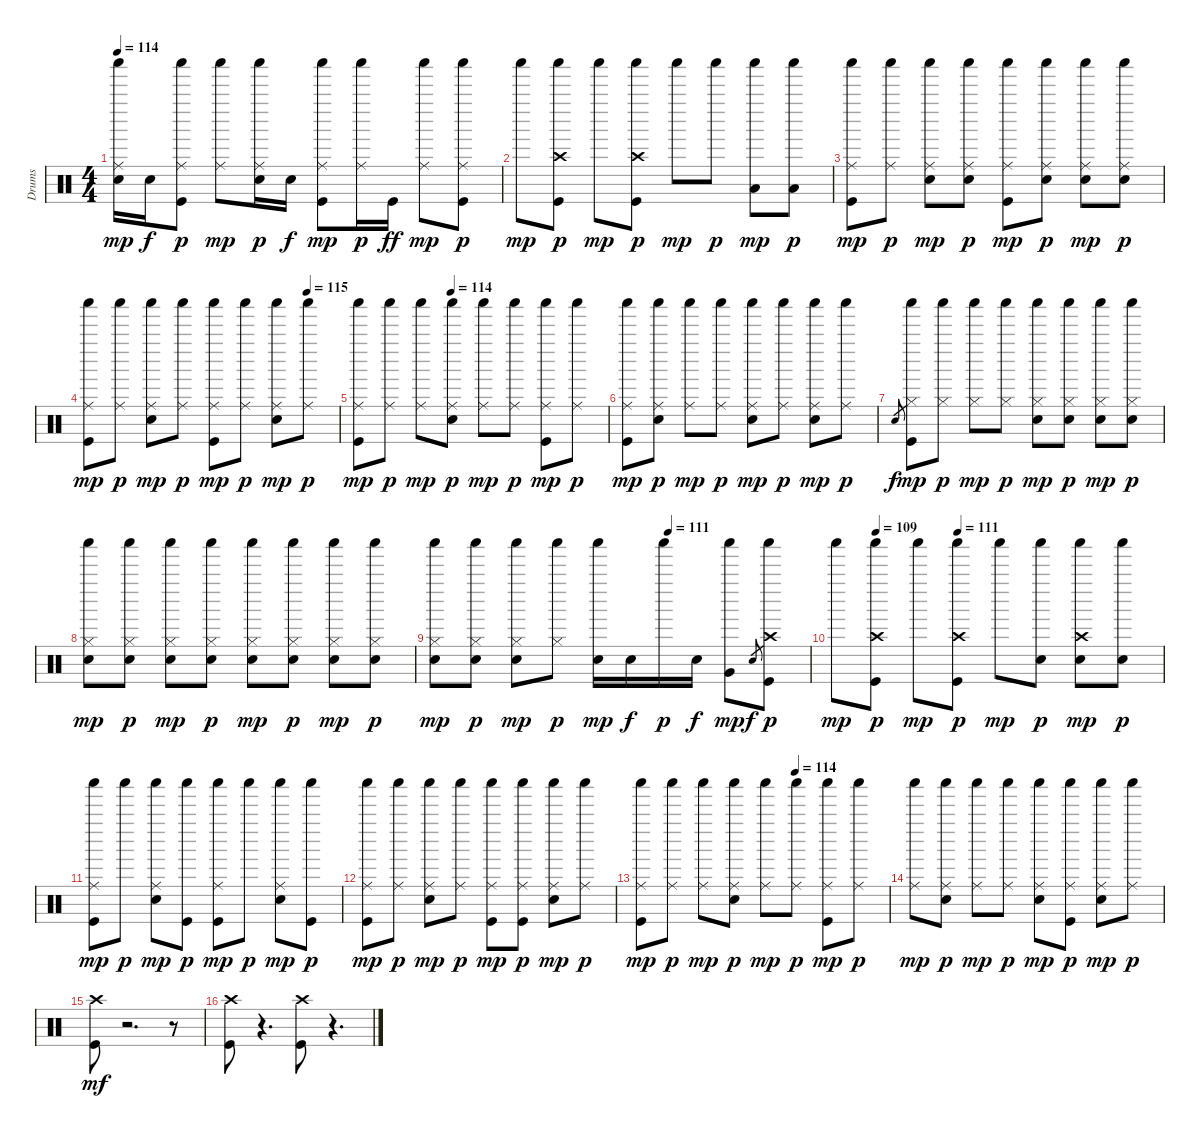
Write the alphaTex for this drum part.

\track ("Drums" "Drums") {instrument percussion}
\staff {score}
\articulation defaults
\ts (4 4)
\tempo 114
\clef neutral
\ks c
("Electric Snare (hit)" "Ride (middle)" "Shaker (hit)").16{dy mp} "Electric Snare (hit)".16{dy f} ("Kick (hit)" "Ride (middle)" "Shaker (hit)").8{dy p} ("Ride (middle)" "Shaker (hit)").8{dy mp} ("Electric Snare (hit)" "Ride (middle)" "Shaker (hit)").16{dy p} "Electric Snare (hit)".16{dy f} ("Kick (hit)" "Ride (middle)" "Shaker (hit)").8{dy mp} ("Ride (middle)" "Shaker (hit)").16{dy p} "Kick (hit)".16{dy ff} ("Ride (middle)" "Shaker (hit)").8{dy mp} ("Kick (hit)" "Ride (middle)" "Shaker (hit)").8{dy p} |
"Shaker (hit)".8{dy mp} ("Kick (hit)" "Crash high (hit)" "Shaker (hit)").8{dy p} "Shaker (hit)".8{dy mp} ("Kick (hit)" "Crash high (hit)" "Shaker (hit)").8{dy p} "Shaker (hit)".8{dy mp} "Shaker (hit)".8{dy p} ("Low Tom (hit)" "Shaker (hit)").8{dy mp} ("Low Floor Tom (hit)" "Shaker (hit)").8{dy p} |
("Kick (hit)" "Ride (middle)" "Shaker (hit)").8{dy mp} ("Ride (middle)" "Shaker (hit)").8{dy p} ("Electric Snare (hit)" "Ride (middle)" "Shaker (hit)").8{dy mp} ("Electric Snare (hit)" "Ride (middle)" "Shaker (hit)").8{dy p} ("Kick (hit)" "Ride (middle)" "Shaker (hit)").8{dy mp} ("Electric Snare (hit)" "Ride (middle)" "Shaker (hit)").8{dy p} ("Electric Snare (hit)" "Ride (middle)" "Shaker (hit)").8{dy mp} ("Electric Snare (hit)" "Ride (middle)" "Shaker (hit)").8{dy p} |
\tempo (115 0.875)
("Kick (hit)" "Ride (middle)" "Shaker (hit)").8{dy mp} ("Ride (middle)" "Shaker (hit)").8{dy p} ("Electric Snare (hit)" "Ride (middle)" "Shaker (hit)").8{dy mp} ("Ride (middle)" "Shaker (hit)").8{dy p} ("Kick (hit)" "Ride (middle)" "Shaker (hit)").8{dy mp} ("Ride (middle)" "Shaker (hit)").8{dy p} ("Electric Snare (hit)" "Ride (middle)" "Shaker (hit)").8{dy mp} ("Ride (middle)" "Shaker (hit)").8{dy p} |
\tempo (114 0.375)
("Kick (hit)" "Ride (middle)" "Shaker (hit)").8{dy mp} ("Ride (middle)" "Shaker (hit)").8{dy p} ("Ride (middle)" "Shaker (hit)").8{dy mp} ("Electric Snare (hit)" "Ride (middle)" "Shaker (hit)").8{dy p} ("Ride (middle)" "Shaker (hit)").8{dy mp} ("Ride (middle)" "Shaker (hit)").8{dy p} ("Kick (hit)" "Ride (middle)" "Shaker (hit)").8{dy mp} ("Ride (middle)" "Shaker (hit)").8{dy p} |
("Kick (hit)" "Ride (middle)" "Shaker (hit)").8{dy mp} ("Electric Snare (hit)" "Ride (middle)" "Shaker (hit)").8{dy p} ("Ride (middle)" "Shaker (hit)").8{dy mp} ("Ride (middle)" "Shaker (hit)").8{dy p} ("Electric Snare (hit)" "Ride (middle)" "Shaker (hit)").8{dy mp} ("Ride (middle)" "Shaker (hit)").8{dy p} ("Electric Snare (hit)" "Ride (middle)" "Shaker (hit)").8{dy mp} ("Ride (middle)" "Shaker (hit)").8{dy p} |
"Electric Snare (hit)".8{gr dy f} ("Kick (hit)" "Hi-Hat (closed)" "Shaker (hit)").8{dy mp} ("Hi-Hat (closed)" "Shaker (hit)").8{dy p} ("Hi-Hat (closed)" "Shaker (hit)").8{dy mp} ("Hi-Hat (closed)" "Shaker (hit)").8{dy p} ("Snare (hit) 2" "Hi-Hat (closed)" "Shaker (hit)").8{dy mp} ("Snare (hit) 2" "Hi-Hat (closed)" "Shaker (hit)").8{dy p} ("Snare (hit) 2" "Hi-Hat (closed)" "Shaker (hit)").8{dy mp} ("Snare (hit) 2" "Hi-Hat (closed)" "Shaker (hit)").8{dy p} |
("Snare (hit) 2" "Hi-Hat (closed)" "Shaker (hit)").8{dy mp} ("Snare (hit) 2" "Hi-Hat (closed)" "Shaker (hit)").8{dy p} ("Snare (hit) 2" "Hi-Hat (closed)" "Shaker (hit)").8{dy mp} ("Snare (hit) 2" "Hi-Hat (closed)" "Shaker (hit)").8{dy p} ("Snare (hit) 2" "Hi-Hat (closed)" "Shaker (hit)").8{dy mp} ("Snare (hit) 2" "Hi-Hat (closed)" "Shaker (hit)").8{dy p} ("Snare (hit) 2" "Hi-Hat (closed)" "Shaker (hit)").8{dy mp} ("Snare (hit) 2" "Hi-Hat (closed)" "Shaker (hit)").8{dy p} |
\tempo (111 0.625)
("Snare (hit) 2" "Hi-Hat (closed)" "Shaker (hit)").8{dy mp} ("Snare (hit) 2" "Hi-Hat (closed)" "Shaker (hit)").8{dy p} ("Snare (hit) 2" "Hi-Hat (closed)" "Shaker (hit)").8{dy mp} ("Hi-Hat (closed)" "Shaker (hit)").8{dy p} ("Electric Snare (hit)" "Shaker (hit)").16{dy mp} "Electric Snare (hit)".16{dy f} "Shaker (hit)".16{dy p} "Electric Snare (hit)".16{dy f} ("Very Low Tom (hit)" "Shaker (hit)").8{dy mp} "Electric Snare (hit)".8{gr dy f} ("Kick (hit)" "Crash high (hit)" "Shaker (hit)").8{dy p} |
\tempo (109 0.125)
\tempo (111 0.375)
"Shaker (hit)".8{dy mp} ("Kick (hit)" "Crash high (hit)" "Shaker (hit)").8{dy p} "Shaker (hit)".8{dy mp} ("Kick (hit)" "Crash high (hit)" "Shaker (hit)").8{dy p} "Shaker (hit)".8{dy mp} ("Electric Snare (hit)" "Shaker (hit)").8{dy p} ("Electric Snare (hit)" "Crash high (hit)" "Shaker (hit)").8{dy mp} ("Electric Snare (hit)" "Shaker (hit)").8{dy p} |
("Kick (hit)" "Ride (middle)" "Shaker (hit)").8{dy mp} "Shaker (hit)".8{dy p} ("Electric Snare (hit)" "Ride (middle)" "Shaker (hit)").8{dy mp} ("Kick (hit)" "Shaker (hit)").8{dy p} ("Kick (hit)" "Ride (middle)" "Shaker (hit)").8{dy mp} "Shaker (hit)".8{dy p} ("Electric Snare (hit)" "Ride (middle)" "Shaker (hit)").8{dy mp} ("Kick (hit)" "Shaker (hit)").8{dy p} |
("Kick (hit)" "Ride (middle)" "Shaker (hit)").8{dy mp} ("Ride (middle)" "Shaker (hit)").8{dy p} ("Electric Snare (hit)" "Ride (middle)" "Shaker (hit)").8{dy mp} ("Ride (middle)" "Shaker (hit)").8{dy p} ("Kick (hit)" "Ride (middle)" "Shaker (hit)").8{dy mp} ("Kick (hit)" "Ride (middle)" "Shaker (hit)").8{dy p} ("Electric Snare (hit)" "Ride (middle)" "Shaker (hit)").8{dy mp} ("Ride (middle)" "Shaker (hit)").8{dy p} |
\tempo (114 0.625)
("Kick (hit)" "Ride (middle)" "Shaker (hit)").8{dy mp} ("Ride (middle)" "Shaker (hit)").8{dy p} ("Ride (middle)" "Shaker (hit)").8{dy mp} ("Electric Snare (hit)" "Ride (middle)" "Shaker (hit)").8{dy p} ("Ride (middle)" "Shaker (hit)").8{dy mp} ("Ride (middle)" "Shaker (hit)").8{dy p} ("Kick (hit)" "Ride (middle)" "Shaker (hit)").8{dy mp} ("Ride (middle)" "Shaker (hit)").8{dy p} |
("Ride (middle)" "Shaker (hit)").8{dy mp} ("Electric Snare (hit)" "Ride (middle)" "Shaker (hit)").8{dy p} ("Ride (middle)" "Shaker (hit)").8{dy mp} ("Ride (middle)" "Shaker (hit)").8{dy p} ("Electric Snare (hit)" "Ride (middle)" "Shaker (hit)").8{dy mp} ("Kick (hit)" "Ride (middle)" "Shaker (hit)").8{dy p} ("Electric Snare (hit)" "Ride (middle)" "Shaker (hit)").8{dy mp} ("Ride (middle)" "Shaker (hit)").8{dy p} |
("Kick (hit)" "Crash high (hit)").8{dy mf} r.2{d} r.8 |
("Kick (hit)" "Crash high (hit)").8 r.4{d} ("Kick (hit)" "Crash high (hit)").8 r.4{d}
